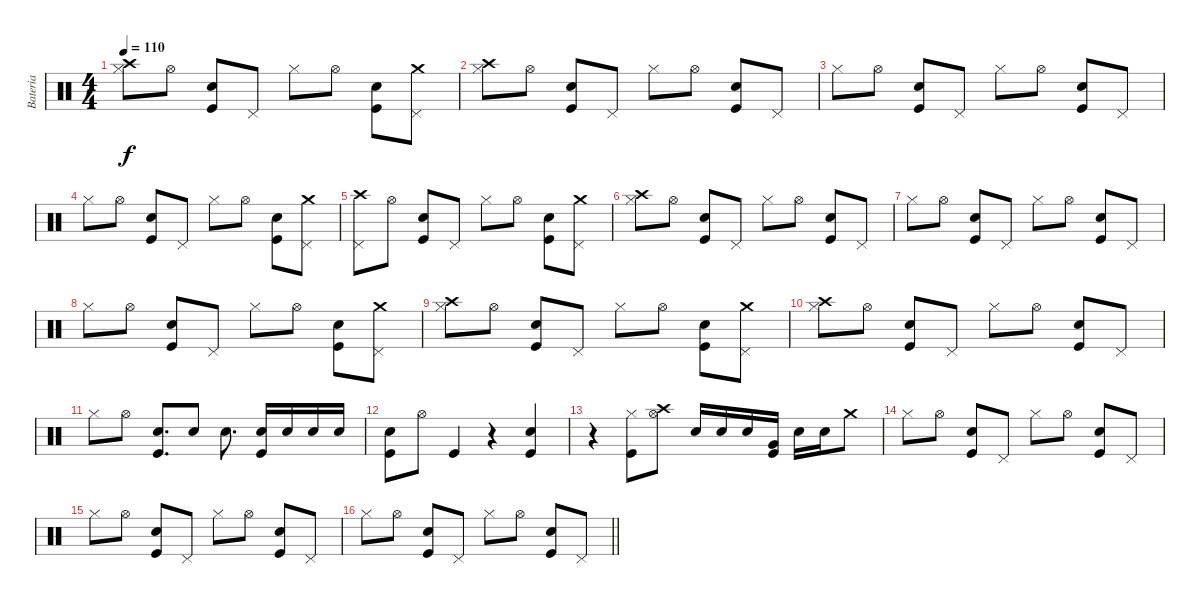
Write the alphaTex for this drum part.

\track ("Bateria" "Bateria") {instrument percussion}
\staff {score}
\articulation defaults
\ts (4 4)
\tempo 110
\clef neutral
\ks c
("Crash high (hit)" "Hi-Hat (closed)").8{dy f} "Hi-Hat (open)".8 ("Electric Snare (hit)" "Kick (hit)").8 "Pedal Hi-Hat (hit)".8 "Hi-Hat (closed)".8 "Hi-Hat (open)".8 ("Electric Snare (hit)" "Kick (hit)").8 ("Crash medium (hit)" "Pedal Hi-Hat (hit)").8 |
("Crash high (hit)" "Hi-Hat (closed)").8 "Hi-Hat (open)".8 ("Electric Snare (hit)" "Kick (hit)").8 "Pedal Hi-Hat (hit)".8 "Hi-Hat (closed)".8 "Hi-Hat (open)".8 ("Electric Snare (hit)" "Kick (hit)").8 "Pedal Hi-Hat (hit)".8 |
"Hi-Hat (closed)".8 "Hi-Hat (open)".8 ("Electric Snare (hit)" "Kick (hit)").8 "Pedal Hi-Hat (hit)".8 "Hi-Hat (closed)".8 "Hi-Hat (open)".8 ("Electric Snare (hit)" "Kick (hit)").8 "Pedal Hi-Hat (hit)".8 |
"Hi-Hat (closed)".8 "Hi-Hat (open)".8 ("Electric Snare (hit)" "Kick (hit)").8 "Pedal Hi-Hat (hit)".8 "Hi-Hat (closed)".8 "Hi-Hat (open)".8 ("Electric Snare (hit)" "Kick (hit)").8 ("Crash medium (hit)" "Pedal Hi-Hat (hit)").8 |
("Crash high (hit)" "Pedal Hi-Hat (hit)").8 "Hi-Hat (open)".8 ("Electric Snare (hit)" "Kick (hit)").8 "Pedal Hi-Hat (hit)".8 "Hi-Hat (closed)".8 "Hi-Hat (open)".8 ("Electric Snare (hit)" "Kick (hit)").8 ("Crash medium (hit)" "Pedal Hi-Hat (hit)").8 |
("Crash high (hit)" "Hi-Hat (closed)").8 "Hi-Hat (open)".8 ("Electric Snare (hit)" "Kick (hit)").8 "Pedal Hi-Hat (hit)".8 "Hi-Hat (closed)".8 "Hi-Hat (open)".8 ("Electric Snare (hit)" "Kick (hit)").8 "Pedal Hi-Hat (hit)".8 |
"Hi-Hat (closed)".8 "Hi-Hat (open)".8 ("Electric Snare (hit)" "Kick (hit)").8 "Pedal Hi-Hat (hit)".8 "Hi-Hat (closed)".8 "Hi-Hat (open)".8 ("Electric Snare (hit)" "Kick (hit)").8 "Pedal Hi-Hat (hit)".8 |
"Hi-Hat (closed)".8 "Hi-Hat (open)".8 ("Electric Snare (hit)" "Kick (hit)").8 "Pedal Hi-Hat (hit)".8 "Hi-Hat (closed)".8 "Hi-Hat (open)".8 ("Electric Snare (hit)" "Kick (hit)").8 ("Crash medium (hit)" "Pedal Hi-Hat (hit)").8 |
("Crash high (hit)" "Hi-Hat (closed)").8 "Hi-Hat (open)".8 ("Electric Snare (hit)" "Kick (hit)").8 "Pedal Hi-Hat (hit)".8 "Hi-Hat (closed)".8 "Hi-Hat (open)".8 ("Electric Snare (hit)" "Kick (hit)").8 ("Crash medium (hit)" "Pedal Hi-Hat (hit)").8 |
("Crash high (hit)" "Hi-Hat (closed)").8 "Hi-Hat (open)".8 ("Electric Snare (hit)" "Kick (hit)").8 "Pedal Hi-Hat (hit)".8 "Hi-Hat (closed)".8 "Hi-Hat (open)".8 ("Electric Snare (hit)" "Kick (hit)").8 "Pedal Hi-Hat (hit)".8 |
"Hi-Hat (closed)".8 "Hi-Hat (open)".8 ("Electric Snare (hit)" "Kick (hit)").8{d} "Electric Snare (hit)".8 "Electric Snare (hit)".8{d} ("Electric Snare (hit)" "Kick (hit)").16 "Electric Snare (hit)".16 "Electric Snare (hit)".16 "Electric Snare (hit)".16 |
("Electric Snare (hit)" "Kick (hit)").8 "Hi-Hat (open)".8 "Kick (hit)".4 r.4 ("Electric Snare (hit)" "Kick (hit)").4 |
r.4 ("Hi-Hat (closed)" "Kick (hit)").8 ("Crash high (hit)" "Hi-Hat (open)").8 "Snare (hit) 2".16 "Electric Snare (hit)".16 "Electric Snare (hit)".16 ("Very Low Tom (hit)" "Kick (hit)").16 "Electric Snare (hit)".16 "Electric Snare (hit)".16 "Crash medium (hit)".8 |
"Hi-Hat (closed)".8 "Hi-Hat (open)".8 ("Electric Snare (hit)" "Kick (hit)").8 "Pedal Hi-Hat (hit)".8 "Hi-Hat (closed)".8 "Hi-Hat (open)".8 ("Electric Snare (hit)" "Kick (hit)").8 "Pedal Hi-Hat (hit)".8 |
"Hi-Hat (closed)".8 "Hi-Hat (open)".8 ("Electric Snare (hit)" "Kick (hit)").8 "Pedal Hi-Hat (hit)".8 "Hi-Hat (closed)".8 "Hi-Hat (open)".8 ("Electric Snare (hit)" "Kick (hit)").8 "Pedal Hi-Hat (hit)".8 |
\barLineRight lightlight "Hi-Hat (closed)".8 "Hi-Hat (open)".8
("Electric Snare (hit)" "Kick (hit)").8 "Pedal Hi-Hat (hit)".8 "Hi-Hat (closed)".8 "Hi-Hat (open)".8 ("Electric Snare (hit)" "Kick (hit)").8 "Pedal Hi-Hat (hit)".8
